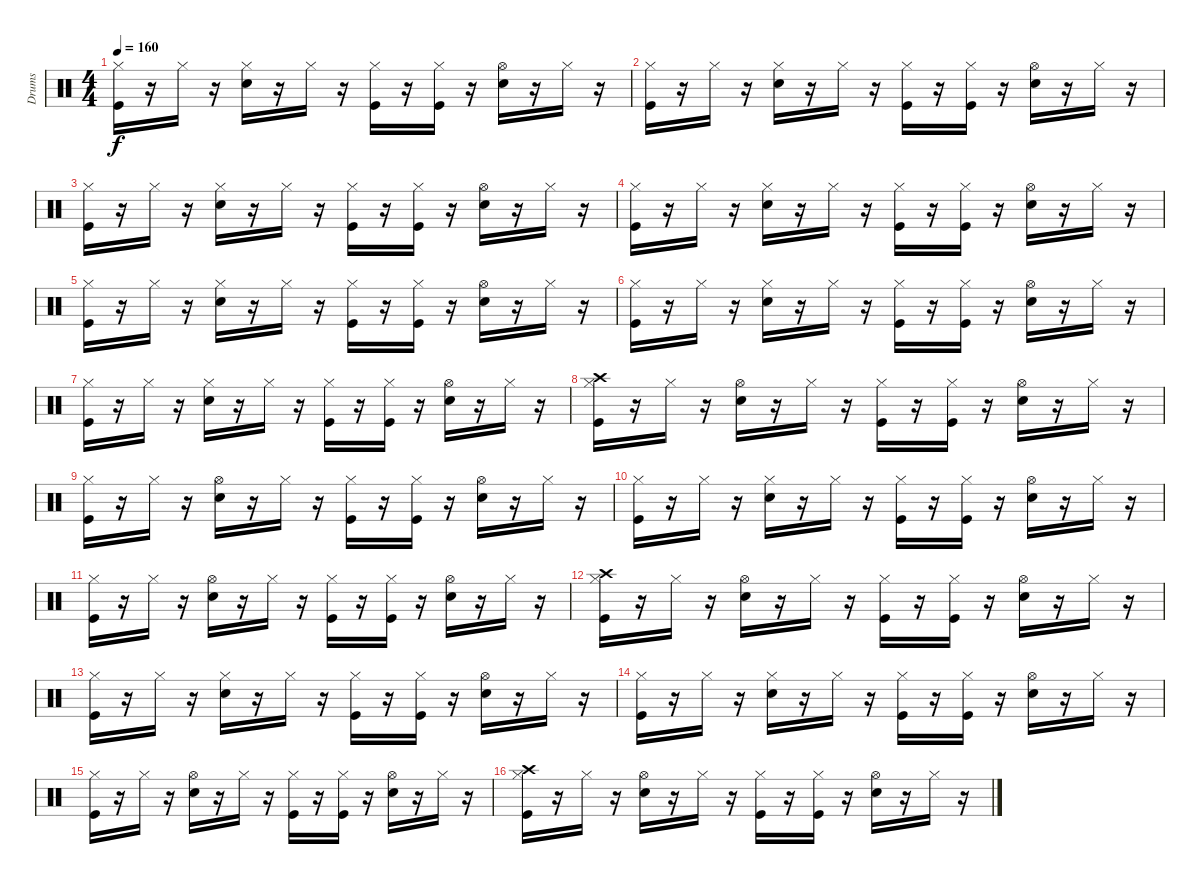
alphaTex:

\track ("Drums" "Drums") {instrument percussion}
\staff {score}
\articulation defaults
\ts (4 4)
\tempo 160
\clef neutral
\ks c
("Hi-Hat (closed)" "Kick (hit)").16{dy f} r.16 "Hi-Hat (closed)".16 r.16 ("Hi-Hat (closed)" "Snare (hit) 2").16 r.16 "Hi-Hat (closed)".16 r.16 ("Hi-Hat (closed)" "Kick (hit)").16 r.16 ("Kick (hit)" "Hi-Hat (closed)").16 r.16 ("Hi-Hat (open)" "Snare (hit) 2").16 r.16 "Hi-Hat (closed)".16 r.16 |
("Hi-Hat (closed)" "Kick (hit)").16 r.16 "Hi-Hat (closed)".16 r.16 ("Hi-Hat (closed)" "Snare (hit) 2").16 r.16 "Hi-Hat (closed)".16 r.16 ("Hi-Hat (closed)" "Kick (hit)").16 r.16 ("Kick (hit)" "Hi-Hat (closed)").16 r.16 ("Hi-Hat (open)" "Snare (hit) 2").16 r.16 "Hi-Hat (closed)".16 r.16 |
("Hi-Hat (closed)" "Kick (hit)").16 r.16 "Hi-Hat (closed)".16 r.16 ("Hi-Hat (closed)" "Snare (hit) 2").16 r.16 "Hi-Hat (closed)".16 r.16 ("Hi-Hat (closed)" "Kick (hit)").16 r.16 ("Kick (hit)" "Hi-Hat (closed)").16 r.16 ("Hi-Hat (open)" "Snare (hit) 2").16 r.16 "Hi-Hat (closed)".16 r.16 |
("Hi-Hat (closed)" "Kick (hit)").16 r.16 "Hi-Hat (closed)".16 r.16 ("Hi-Hat (closed)" "Snare (hit) 2").16 r.16 "Hi-Hat (closed)".16 r.16 ("Hi-Hat (closed)" "Kick (hit)").16 r.16 ("Kick (hit)" "Hi-Hat (closed)").16 r.16 ("Hi-Hat (open)" "Snare (hit) 2").16 r.16 "Hi-Hat (closed)".16 r.16 |
("Hi-Hat (closed)" "Kick (hit)").16 r.16 "Hi-Hat (closed)".16 r.16 ("Hi-Hat (closed)" "Snare (hit) 2").16 r.16 "Hi-Hat (closed)".16 r.16 ("Hi-Hat (closed)" "Kick (hit)").16 r.16 ("Kick (hit)" "Hi-Hat (closed)").16 r.16 ("Hi-Hat (open)" "Snare (hit) 2").16 r.16 "Hi-Hat (closed)".16 r.16 |
("Hi-Hat (closed)" "Kick (hit)").16 r.16 "Hi-Hat (closed)".16 r.16 ("Hi-Hat (closed)" "Snare (hit) 2").16 r.16 "Hi-Hat (closed)".16 r.16 ("Hi-Hat (closed)" "Kick (hit)").16 r.16 ("Kick (hit)" "Hi-Hat (closed)").16 r.16 ("Hi-Hat (open)" "Snare (hit) 2").16 r.16 "Hi-Hat (closed)".16 r.16 |
("Hi-Hat (closed)" "Kick (hit)").16 r.16 "Hi-Hat (closed)".16 r.16 ("Hi-Hat (closed)" "Snare (hit) 2").16 r.16 "Hi-Hat (closed)".16 r.16 ("Hi-Hat (closed)" "Kick (hit)").16 r.16 ("Kick (hit)" "Hi-Hat (closed)").16 r.16 ("Hi-Hat (open)" "Snare (hit) 2").16 r.16 "Hi-Hat (closed)".16 r.16 |
("Crash high (hit)" "Hi-Hat (closed)" "Kick (hit)").16 r.16 "Hi-Hat (closed)".16 r.16 ("Hi-Hat (open)" "Snare (hit) 2").16 r.16 "Hi-Hat (closed)".16 r.16 ("Hi-Hat (closed)" "Kick (hit)").16 r.16 ("Kick (hit)" "Hi-Hat (closed)").16 r.16 ("Hi-Hat (open)" "Snare (hit) 2").16 r.16 "Hi-Hat (closed)".16 r.16 |
("Hi-Hat (closed)" "Kick (hit)").16 r.16 "Hi-Hat (closed)".16 r.16 ("Hi-Hat (open)" "Snare (hit) 2").16 r.16 "Hi-Hat (closed)".16 r.16 ("Hi-Hat (closed)" "Kick (hit)").16 r.16 ("Kick (hit)" "Hi-Hat (closed)").16 r.16 ("Hi-Hat (open)" "Snare (hit) 2").16 r.16 "Hi-Hat (closed)".16 r.16 |
("Hi-Hat (closed)" "Kick (hit)").16 r.16 "Hi-Hat (closed)".16 r.16 ("Hi-Hat (closed)" "Snare (hit) 2").16 r.16 "Hi-Hat (closed)".16 r.16 ("Hi-Hat (closed)" "Kick (hit)").16 r.16 ("Kick (hit)" "Hi-Hat (closed)").16 r.16 ("Hi-Hat (open)" "Snare (hit) 2").16 r.16 "Hi-Hat (closed)".16 r.16 |
("Hi-Hat (closed)" "Kick (hit)").16 r.16 "Hi-Hat (closed)".16 r.16 ("Hi-Hat (open)" "Snare (hit) 2").16 r.16 "Hi-Hat (closed)".16 r.16 ("Hi-Hat (closed)" "Kick (hit)").16 r.16 ("Kick (hit)" "Hi-Hat (closed)").16 r.16 ("Hi-Hat (open)" "Snare (hit) 2").16 r.16 "Hi-Hat (closed)".16 r.16 |
("Crash high (hit)" "Hi-Hat (closed)" "Kick (hit)").16 r.16 "Hi-Hat (closed)".16 r.16 ("Hi-Hat (open)" "Snare (hit) 2").16 r.16 "Hi-Hat (closed)".16 r.16 ("Hi-Hat (closed)" "Kick (hit)").16 r.16 ("Kick (hit)" "Hi-Hat (closed)").16 r.16 ("Hi-Hat (open)" "Snare (hit) 2").16 r.16 "Hi-Hat (closed)".16 r.16 |
("Hi-Hat (closed)" "Kick (hit)").16 r.16 "Hi-Hat (closed)".16 r.16 ("Hi-Hat (closed)" "Snare (hit) 2").16 r.16 "Hi-Hat (closed)".16 r.16 ("Hi-Hat (closed)" "Kick (hit)").16 r.16 ("Kick (hit)" "Hi-Hat (closed)").16 r.16 ("Hi-Hat (open)" "Snare (hit) 2").16 r.16 "Hi-Hat (closed)".16 r.16 |
("Hi-Hat (closed)" "Kick (hit)").16 r.16 "Hi-Hat (closed)".16 r.16 ("Hi-Hat (closed)" "Snare (hit) 2").16 r.16 "Hi-Hat (closed)".16 r.16 ("Hi-Hat (closed)" "Kick (hit)").16 r.16 ("Kick (hit)" "Hi-Hat (closed)").16 r.16 ("Hi-Hat (open)" "Snare (hit) 2").16 r.16 "Hi-Hat (closed)".16 r.16 |
("Hi-Hat (closed)" "Kick (hit)").16 r.16 "Hi-Hat (closed)".16 r.16 ("Hi-Hat (open)" "Snare (hit) 2").16 r.16 "Hi-Hat (closed)".16 r.16 ("Hi-Hat (closed)" "Kick (hit)").16 r.16 ("Kick (hit)" "Hi-Hat (closed)").16 r.16 ("Hi-Hat (open)" "Snare (hit) 2").16 r.16 "Hi-Hat (closed)".16 r.16 |
("Crash high (hit)" "Hi-Hat (closed)" "Kick (hit)").16 r.16 "Hi-Hat (closed)".16 r.16 ("Hi-Hat (open)" "Snare (hit) 2").16 r.16 "Hi-Hat (closed)".16 r.16 ("Hi-Hat (closed)" "Kick (hit)").16 r.16 ("Kick (hit)" "Hi-Hat (closed)").16 r.16 ("Hi-Hat (open)" "Snare (hit) 2").16 r.16 "Hi-Hat (closed)".16 r.16
